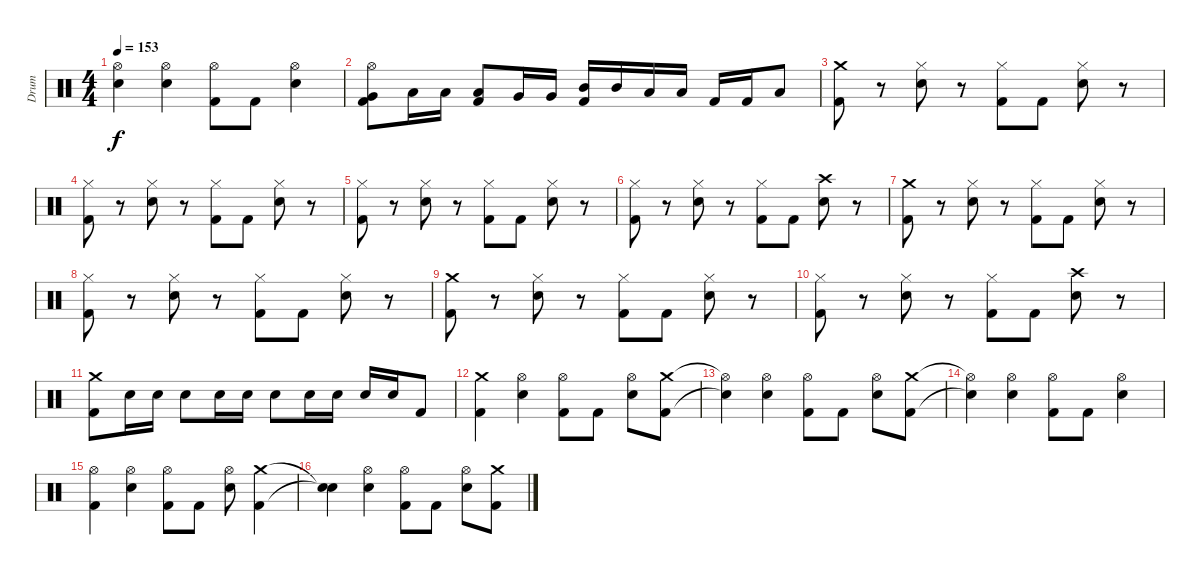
\track ("Drum" "Drum") {instrument percussion}
\staff {score}
\articulation defaults
\ts (4 4)
\tempo 153
\clef neutral
\ks c
("Hi-Hat (open)"{t} "Snare (hit)"{t}).4{dy f} ("Hi-Hat (open)" "Snare (hit) 2").4 ("Hi-Hat (open)" "Kick (hit) 2").8 "Kick (hit) 2".8 ("Hi-Hat (open)" "Snare (hit) 2").4 |
("Hi-Hat (open)" "Very Low Tom (hit)" "Kick (hit) 2").8 "Low Tom (hit)".16 "Low Tom (hit)".16 ("Low Tom (hit)" "Kick (hit) 2").8 "Very Low Tom (hit)".16 "Very Low Tom (hit)".16 ("Mid Tom (hit)" "Kick (hit) 2").16 "Mid Tom (hit)".16 "Low Tom (hit)".16 "Low Tom (hit)".16 "Kick (hit) 2".16 "Kick (hit) 2".16 "Low Tom (hit)".8 |
("Crash medium (hit)" "Kick (hit) 2").8 r.8 ("Hi-Hat (closed)" "Snare (hit) 2").8 r.8 ("Hi-Hat (closed)" "Kick (hit) 2").8 "Kick (hit) 2".8 ("Hi-Hat (closed)" "Snare (hit) 2").8 r.8 |
("Hi-Hat (closed)" "Kick (hit) 2").8 r.8 ("Hi-Hat (closed)" "Snare (hit) 2").8 r.8 ("Hi-Hat (closed)" "Kick (hit) 2").8 "Kick (hit) 2".8 ("Hi-Hat (closed)" "Snare (hit) 2").8 r.8 |
("Hi-Hat (closed)" "Kick (hit) 2").8 r.8 ("Hi-Hat (closed)" "Snare (hit) 2").8 r.8 ("Hi-Hat (closed)" "Kick (hit) 2").8 "Kick (hit) 2".8 ("Hi-Hat (closed)" "Snare (hit) 2").8 r.8 |
("Hi-Hat (closed)" "Kick (hit) 2").8 r.8 ("Hi-Hat (closed)" "Snare (hit) 2").8 r.8 ("Hi-Hat (closed)" "Kick (hit) 2").8 "Kick (hit) 2".8 ("Crash high (hit)" "Snare (hit) 2").8 r.8 |
("Crash medium (hit)" "Kick (hit) 2").8 r.8 ("Hi-Hat (closed)" "Snare (hit) 2").8 r.8 ("Hi-Hat (closed)" "Kick (hit) 2").8 "Kick (hit) 2".8 ("Hi-Hat (closed)" "Snare (hit) 2").8 r.8 |
("Hi-Hat (closed)" "Kick (hit) 2").8 r.8 ("Hi-Hat (closed)" "Snare (hit) 2").8 r.8 ("Hi-Hat (closed)" "Kick (hit) 2").8 "Kick (hit) 2".8 ("Hi-Hat (closed)" "Snare (hit) 2").8 r.8 |
("Crash medium (hit)" "Kick (hit) 2").8 r.8 ("Hi-Hat (closed)" "Snare (hit) 2").8 r.8 ("Hi-Hat (closed)" "Kick (hit) 2").8 "Kick (hit) 2".8 ("Hi-Hat (closed)" "Snare (hit) 2").8 r.8 |
("Hi-Hat (closed)" "Kick (hit) 2").8 r.8 ("Hi-Hat (closed)" "Snare (hit) 2").8 r.8 ("Hi-Hat (closed)" "Kick (hit) 2").8 "Kick (hit) 2".8 ("Crash high (hit)" "Snare (hit) 2").8 r.8 |
("Crash medium (hit)" "Kick (hit) 2").8 "Snare (hit) 2".16 "Snare (hit) 2".16 "Snare (hit) 2".8 "Snare (hit) 2".16 "Snare (hit) 2".16 "Snare (hit) 2".8 "Snare (hit) 2".16 "Snare (hit) 2".16 "Snare (hit) 2".16 "Snare (hit) 2".16 "Kick (hit) 2".8 |
("Crash medium (hit)" "Kick (hit) 2").4 ("Hi-Hat (open)" "Snare (hit) 2").4 ("Hi-Hat (open)" "Kick (hit) 2").8 "Kick (hit) 2".8 ("Hi-Hat (open)" "Snare (hit) 2").8 ("Crash medium (hit)" "Kick (hit) 2").8 |
("Hi-Hat (open)"{t} "Snare (hit)"{t}).4 ("Hi-Hat (open)" "Snare (hit) 2").4 ("Hi-Hat (open)" "Kick (hit) 2").8 "Kick (hit) 2".8 ("Hi-Hat (open)" "Snare (hit) 2").8 ("Crash medium (hit)" "Kick (hit) 2").8 |
("Hi-Hat (open)"{t} "Snare (hit)"{t}).4 ("Hi-Hat (open)" "Snare (hit) 2").4 ("Hi-Hat (open)" "Kick (hit) 2").8 "Kick (hit) 2".8 ("Hi-Hat (open)" "Snare (hit) 2").4 |
("Hi-Hat (open)" "Kick (hit) 2").4 ("Hi-Hat (open)" "Snare (hit) 2").4 ("Hi-Hat (open)" "Kick (hit) 2").8 "Kick (hit) 2".8 ("Hi-Hat (open)" "Snare (hit) 2").8 ("Crash medium (hit)" "Kick (hit) 2").4 |
("Snare (hit)"{t} "Snare (hit)"{t}).4 ("Hi-Hat (open)" "Snare (hit) 2").4 ("Hi-Hat (open)" "Kick (hit) 2").8 "Kick (hit) 2".8 ("Hi-Hat (open)" "Snare (hit) 2").8 ("Crash medium (hit)" "Kick (hit) 2").8
